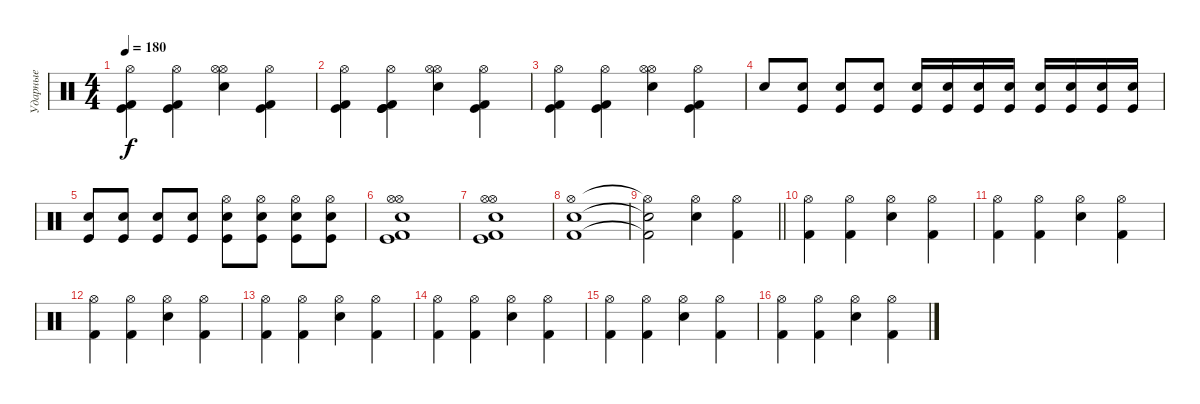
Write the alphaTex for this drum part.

\track ("Ударные" "Ударные") {instrument percussion}
\staff {score}
\articulation defaults
\ts (4 4)
\tempo 180
\clef neutral
\ks c
("Hi-Hat (open)" "Kick (hit) 2" "Kick (hit)").4{dy f} ("Hi-Hat (open)" "Kick (hit) 2" "Kick (hit)").4 ("Electric Snare (hit)" "Hi-Hat (open)" "Hi-Hat (open)").4 ("Hi-Hat (open)" "Kick (hit) 2" "Kick (hit)").4 |
("Hi-Hat (open)" "Kick (hit) 2" "Kick (hit)").4 ("Hi-Hat (open)" "Kick (hit) 2" "Kick (hit)" "Kick (hit)").4 ("Electric Snare (hit)" "Hi-Hat (open)" "Hi-Hat (open)").4 ("Hi-Hat (open)" "Kick (hit) 2" "Kick (hit)").4 |
("Hi-Hat (open)" "Kick (hit) 2" "Kick (hit)").4 ("Hi-Hat (open)" "Kick (hit) 2" "Kick (hit)").4 ("Electric Snare (hit)" "Hi-Hat (open)" "Hi-Hat (open)").4 ("Hi-Hat (open)" "Kick (hit) 2" "Kick (hit)").4 |
"Snare (hit) 2".8 ("Kick (hit)" "Snare (hit) 2").8 ("Snare (hit) 2" "Kick (hit)").8 ("Kick (hit)" "Snare (hit) 2").8 ("Snare (hit) 2" "Kick (hit)").16 ("Kick (hit)" "Snare (hit) 2").16 ("Snare (hit) 2" "Kick (hit)").16 ("Kick (hit)" "Snare (hit) 2").16 ("Snare (hit) 2" "Kick (hit)").16 ("Kick (hit)" "Snare (hit) 2").16 ("Snare (hit) 2" "Kick (hit)").16 ("Kick (hit)" "Snare (hit) 2").16 |
("Snare (hit) 2" "Kick (hit)").8 ("Kick (hit)" "Snare (hit) 2").8 ("Snare (hit) 2" "Kick (hit)").8 ("Kick (hit)" "Snare (hit) 2").8 ("Snare (hit) 2" "Kick (hit)" "Hi-Hat (open)").8 ("Hi-Hat (open)" "Kick (hit)" "Snare (hit) 2").8 ("Snare (hit) 2" "Kick (hit)" "Hi-Hat (open)").8 ("Hi-Hat (open)" "Kick (hit)" "Snare (hit) 2").8 |
("Hi-Hat (open)" "Kick (hit) 2" "Snare (hit) 2" "Hi-Hat (open)" "Kick (hit)").1 |
("Hi-Hat (open)" "Kick (hit) 2" "Snare (hit) 2" "Kick (hit)" "Hi-Hat (open)").1 |
("Electric Snare (hit)" "Kick (hit) 2" "Hi-Hat (open)").1 |
\barLineRight lightlight
("Electric Snare (hit)"{t} "Kick (hit) 2"{t} "Hi-Hat (open)"{t}).2 ("Electric Snare (hit)" "Hi-Hat (open)").4 ("Kick (hit) 2" "Hi-Hat (open)").4 |
\section ("" "")
("Hi-Hat (open)" "Kick (hit) 2").4 ("Hi-Hat (open)" "Kick (hit) 2").4 ("Electric Snare (hit)" "Hi-Hat (open)").4 ("Hi-Hat (open)" "Kick (hit) 2").4 |
("Hi-Hat (open)" "Kick (hit) 2").4 ("Hi-Hat (open)" "Kick (hit) 2").4 ("Electric Snare (hit)" "Hi-Hat (open)").4 ("Hi-Hat (open)" "Kick (hit) 2").4 |
("Hi-Hat (open)" "Kick (hit) 2").4 ("Hi-Hat (open)" "Kick (hit) 2").4 ("Electric Snare (hit)" "Hi-Hat (open)").4 ("Hi-Hat (open)" "Kick (hit) 2").4 |
("Hi-Hat (open)" "Kick (hit) 2").4 ("Hi-Hat (open)" "Kick (hit) 2").4 ("Electric Snare (hit)" "Hi-Hat (open)").4 ("Hi-Hat (open)" "Kick (hit) 2").4 |
("Hi-Hat (open)" "Kick (hit) 2").4 ("Hi-Hat (open)" "Kick (hit) 2").4 ("Electric Snare (hit)" "Hi-Hat (open)").4 ("Hi-Hat (open)" "Kick (hit) 2").4 |
("Hi-Hat (open)" "Kick (hit) 2").4 ("Hi-Hat (open)" "Kick (hit) 2").4 ("Electric Snare (hit)" "Hi-Hat (open)").4 ("Hi-Hat (open)" "Kick (hit) 2").4 |
("Hi-Hat (open)" "Kick (hit) 2").4 ("Hi-Hat (open)" "Kick (hit) 2").4 ("Electric Snare (hit)" "Hi-Hat (open)").4 ("Hi-Hat (open)" "Kick (hit) 2").4
